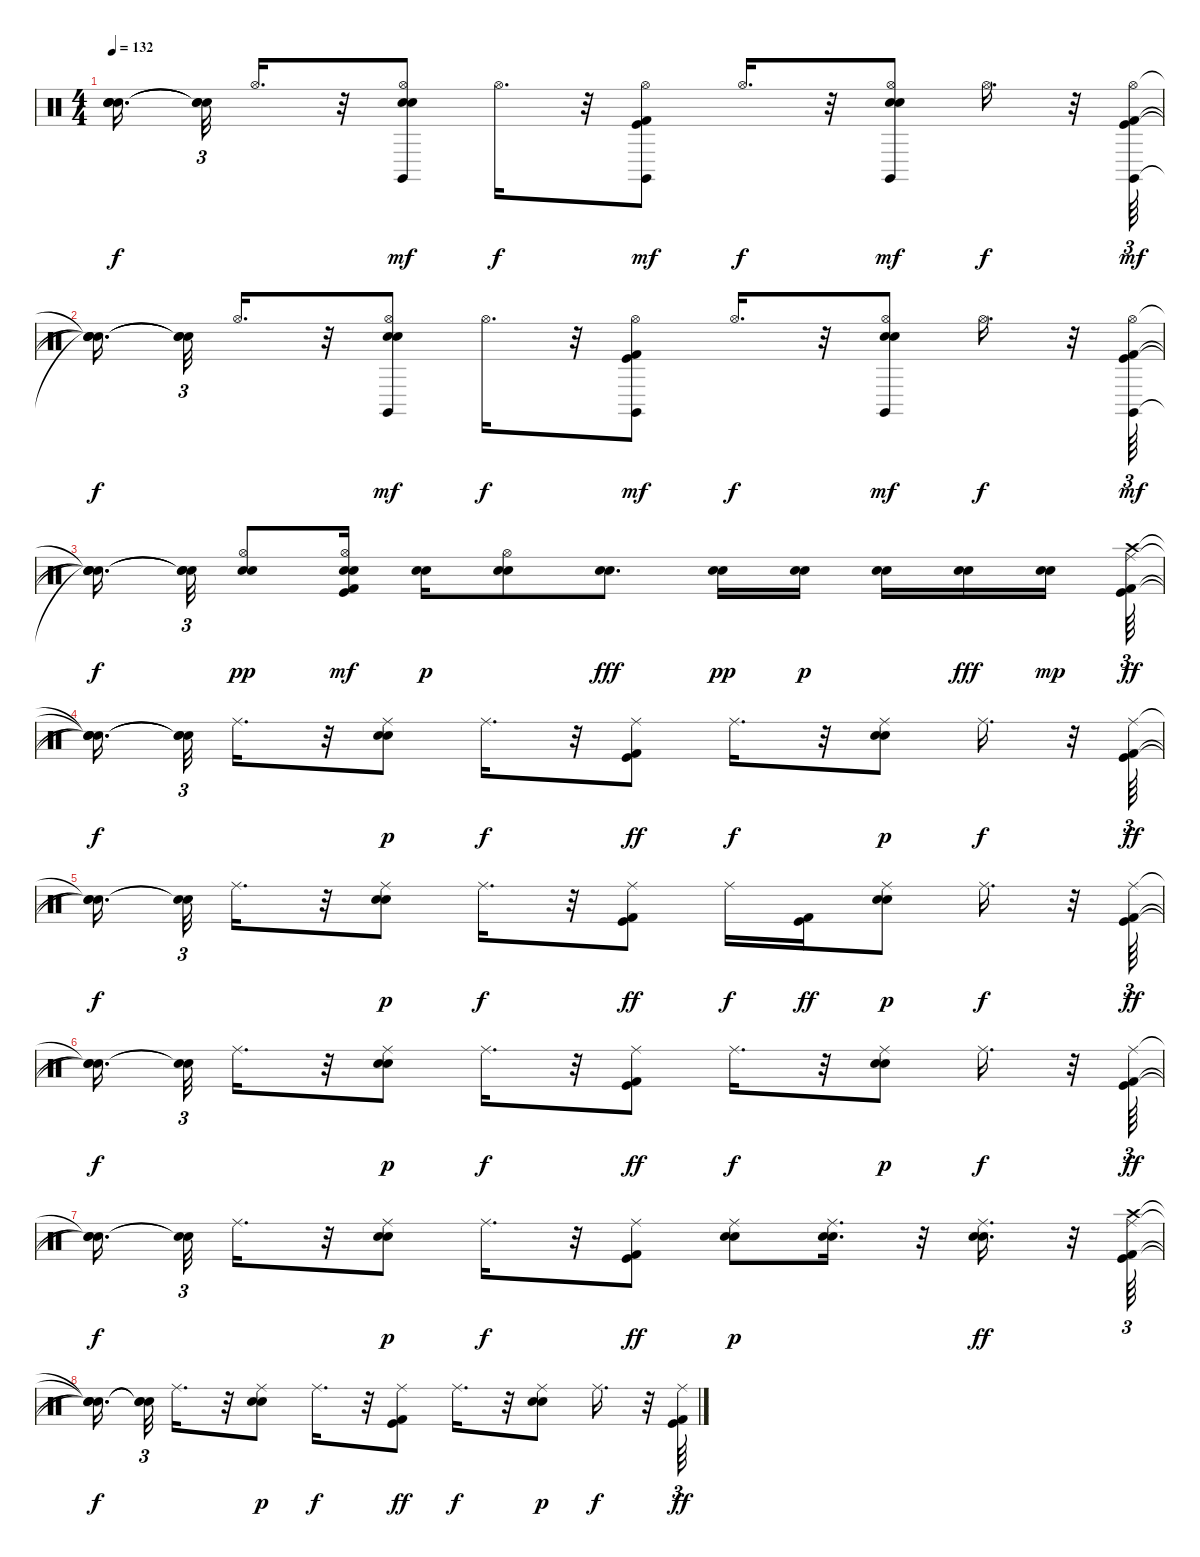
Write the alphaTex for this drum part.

\track "" {instrument percussion}
\staff {score}
\articulation defaults
\ts (4 4)
\tempo 132
\clef neutral
\ks c
("Snare (hit)"{t} "Snare (hit)"{t} "Snare (hit)"{t} "Snare (hit)"{t}).16{d dy f beam splitsecondary} ("Snare (hit)"{t} "Snare (hit)"{t} "Snare (hit)"{t}).32{tu (3 2)} "Hi-Hat (open)".16{d} r.32 ("Electric Snare (hit)" "Snare (hit) 2" "Hi-Hat (open)" "Claves (hit)").8{dy mf} "Hi-Hat (open)".16{d dy f} r.32 ("Kick (hit) 2" "Kick (hit)" "Hi-Hat (open)" "Claves (hit)").8{dy mf} "Hi-Hat (open)".16{d dy f} r.32 ("Electric Snare (hit)" "Snare (hit) 2" "Hi-Hat (open)" "Claves (hit)").8{dy mf} "Hi-Hat (open)".16{d dy f} r.32 ("Kick (hit) 2" "Kick (hit)" "Hi-Hat (open)" "Claves (hit)").64{tu (3 2) dy mf} |
("Snare (hit)"{t} "Snare (hit)"{t} "Snare (hit)"{t} "Snare (hit)"{t}).16{d dy f beam splitsecondary} ("Snare (hit)"{t} "Snare (hit)"{t} "Snare (hit)"{t}).32{tu (3 2)} "Hi-Hat (open)".16{d} r.32 ("Electric Snare (hit)" "Snare (hit) 2" "Hi-Hat (open)" "Claves (hit)").8{dy mf} "Hi-Hat (open)".16{d dy f} r.32 ("Kick (hit) 2" "Kick (hit)" "Hi-Hat (open)" "Claves (hit)").8{dy mf} "Hi-Hat (open)".16{d dy f} r.32 ("Electric Snare (hit)" "Snare (hit) 2" "Hi-Hat (open)" "Claves (hit)").8{dy mf} "Hi-Hat (open)".16{d dy f} r.32 ("Kick (hit) 2" "Kick (hit)" "Hi-Hat (open)" "Claves (hit)").64{tu (3 2) dy mf} |
("Snare (hit)"{t} "Snare (hit)"{t} "Snare (hit)"{t} "Snare (hit)"{t}).16{d dy f beam splitsecondary} ("Snare (hit)"{t} "Snare (hit)"{t} "Snare (hit)"{t}).32{tu (3 2)} ("Electric Snare (hit)" "Snare (hit) 2" "Hi-Hat (open)").8{dy pp} ("Electric Snare (hit)" "Snare (hit) 2" "Kick (hit) 2" "Kick (hit)" "Hi-Hat (open)").16{dy mf} ("Snare (hit) 2" "Electric Snare (hit)").16{dy p} ("Electric Snare (hit)" "Snare (hit) 2" "Hi-Hat (open)").8 ("Snare (hit) 2" "Electric Snare (hit)").8{d dy fff} ("Electric Snare (hit)" "Snare (hit) 2").16{dy pp} ("Electric Snare (hit)" "Snare (hit) 2").16{dy p} ("Electric Snare (hit)" "Snare (hit) 2").16 ("Snare (hit) 2" "Electric Snare (hit)").16{dy fff} ("Electric Snare (hit)" "Snare (hit) 2").16{dy mp beam splitsecondary} ("Kick (hit) 2" "Kick (hit)" "Crash high (hit)" "Ride (middle)").64{tu (3 2) dy ff} |
("Snare (hit)"{t} "Snare (hit)"{t} "Snare (hit)"{t} "Snare (hit)"{t}).16{d dy f beam splitsecondary} ("Snare (hit)"{t} "Snare (hit)"{t} "Snare (hit)"{t}).32{tu (3 2)} "Ride (middle)".16{d} r.32 ("Electric Snare (hit)" "Snare (hit) 2" "Ride (middle)").8{dy p} "Ride (middle)".16{d dy f} r.32 ("Kick (hit) 2" "Kick (hit)" "Ride (middle)").8{dy ff} "Ride (middle)".16{d dy f} r.32 ("Electric Snare (hit)" "Snare (hit) 2" "Ride (middle)").8{dy p} "Ride (middle)".16{d dy f} r.32 ("Kick (hit) 2" "Kick (hit)" "Ride (middle)").64{tu (3 2) dy ff} |
("Snare (hit)"{t} "Snare (hit)"{t} "Snare (hit)"{t}).16{d dy f beam splitsecondary} ("Snare (hit)"{t} "Snare (hit)"{t}).32{tu (3 2)} "Ride (middle)".16{d} r.32 ("Electric Snare (hit)" "Snare (hit) 2" "Ride (middle)").8{dy p} "Ride (middle)".16{d dy f} r.32 ("Kick (hit) 2" "Kick (hit)" "Ride (middle)").8{dy ff} "Ride (middle)".16{dy f} ("Kick (hit) 2" "Kick (hit)").16{dy ff} ("Electric Snare (hit)" "Snare (hit) 2" "Ride (middle)").8{dy p} "Ride (middle)".16{d dy f} r.32 ("Kick (hit) 2" "Kick (hit)" "Ride (middle)").64{tu (3 2) dy ff} |
("Snare (hit)"{t} "Snare (hit)"{t} "Snare (hit)"{t}).16{d dy f beam splitsecondary} ("Snare (hit)"{t} "Snare (hit)"{t}).32{tu (3 2)} "Ride (middle)".16{d} r.32 ("Electric Snare (hit)" "Snare (hit) 2" "Ride (middle)").8{dy p} "Ride (middle)".16{d dy f} r.32 ("Kick (hit) 2" "Kick (hit)" "Ride (middle)").8{dy ff} "Ride (middle)".16{d dy f} r.32 ("Electric Snare (hit)" "Snare (hit) 2" "Ride (middle)").8{dy p} "Ride (middle)".16{d dy f} r.32 ("Kick (hit) 2" "Kick (hit)" "Ride (middle)").64{tu (3 2) dy ff} |
("Snare (hit)"{t} "Snare (hit)"{t} "Snare (hit)"{t}).16{d dy f beam splitsecondary} ("Snare (hit)"{t} "Snare (hit)"{t}).32{tu (3 2)} "Ride (middle)".16{d} r.32 ("Electric Snare (hit)" "Snare (hit) 2" "Ride (middle)").8{dy p} "Ride (middle)".16{d dy f} r.32 ("Kick (hit) 2" "Kick (hit)" "Ride (middle)").8{dy ff} ("Electric Snare (hit)" "Snare (hit) 2" "Ride (middle)").8{dy p} ("Electric Snare (hit)" "Snare (hit) 2" "Ride (middle)").16{d} r.32 ("Snare (hit) 2" "Electric Snare (hit)" "Ride (middle)").16{d dy ff} r.32 ("Kick (hit) 2" "Kick (hit)" "Crash high (hit)" "Ride (middle)").64{tu (3 2)} |
("Snare (hit)"{t} "Snare (hit)"{t} "Snare (hit)"{t} "Snare (hit)"{t}).16{d dy f beam splitsecondary} ("Snare (hit)"{t} "Snare (hit)"{t} "Snare (hit)"{t}).32{tu (3 2)} "Ride (middle)".16{d} r.32 ("Electric Snare (hit)" "Snare (hit) 2" "Ride (middle)").8{dy p} "Ride (middle)".16{d dy f} r.32 ("Kick (hit) 2" "Kick (hit)" "Ride (middle)").8{dy ff} "Ride (middle)".16{d dy f} r.32 ("Electric Snare (hit)" "Snare (hit) 2" "Ride (middle)").8{dy p} "Ride (middle)".16{d dy f} r.32 ("Kick (hit) 2" "Kick (hit)" "Ride (middle)").64{tu (3 2) dy ff}
